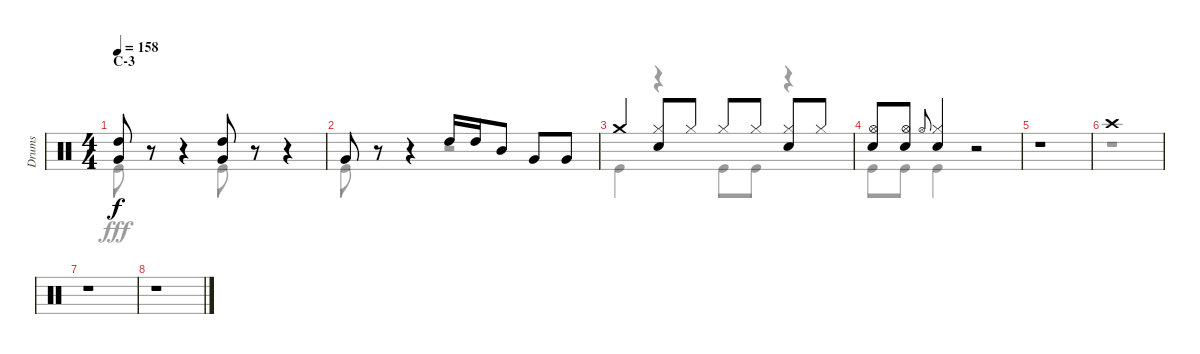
\track ("Drums" "Drums") {instrument percussion}
\staff {score}
\articulation defaults
\voice
\ts (4 4)
\section ("" "C-3")
\tempo 158
\clef neutral
\ks c
("High Tom (hit)" "Very Low Tom (hit)").8{dy f} r.8 r.4 ("High Tom (hit)" "Very Low Tom (hit)").8 r.8 r.4 |
"Very Low Tom (hit)".8 r.8 r.4 "High Tom (hit)".16 "High Tom (hit)".16 "Mid Tom (hit)".8 "Very Low Tom (hit)".8 "Very Low Tom (hit)".8 |
"Crash medium (hit)".4 ("Hi-Hat (closed)" "Snare (hit) 2").8 "Hi-Hat (closed)".8 "Hi-Hat (closed)".8 "Hi-Hat (closed)".8 ("Hi-Hat (closed)" "Snare (hit) 2").8 "Hi-Hat (closed)".8 |
("Hi-Hat (open)" "Snare (hit) 2").8 ("Hi-Hat (open)" "Snare (hit) 2").8 "Hi-Hat (open)".8{gr onbeat} ("Hi-Hat (closed)" "Snare (hit) 2").4 r.2 |
r.1 |
"Crash high (hit)".1 |
r.1 |
r.1
\voice
\clef neutral
\ottava regular
\simile none
\ks c "Kick (hit)".8{dy fff}
r.8 r.4 "Kick (hit)".8 r.8 r.4 |
"Kick (hit)".8 r.8 r.4 r.2 |
"Kick (hit)".4 r.4 "Kick (hit)".8 "Kick (hit)".8 r.4 |
"Kick (hit)".8 "Kick (hit)".8 "Kick (hit)".4 r.2 |
r.1 |
r.1 |
r.1 |
r.1
